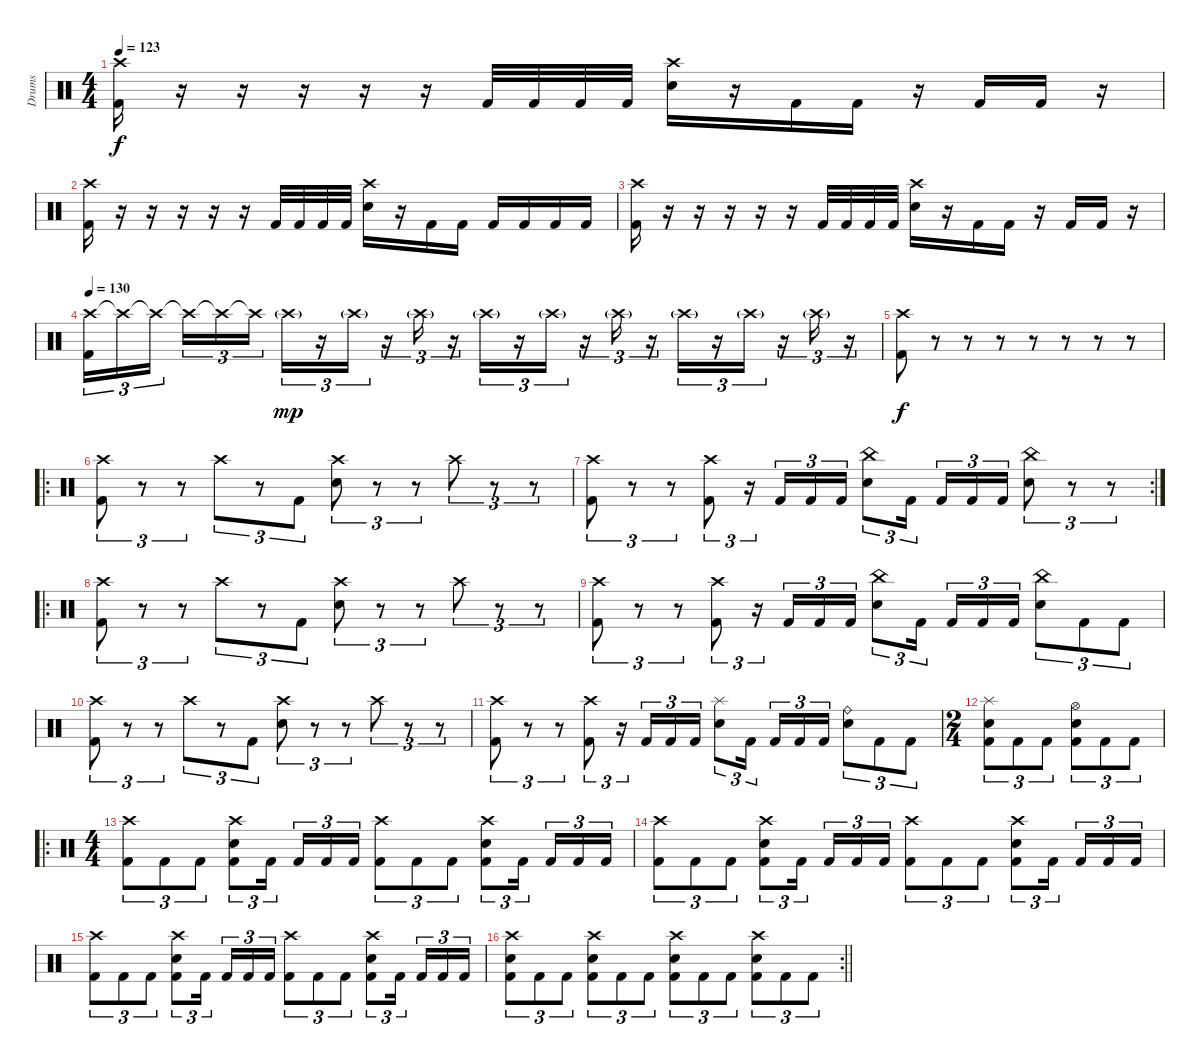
\track ("Drums" "Drums") {instrument percussion}
\staff {score}
\articulation defaults
\ts (4 4)
\tempo 123
\clef neutral
\ks c
("Crash high (hit)" "Kick (hit) 2").16{dy f} r.16 r.16 r.16 r.16 r.16 "Kick (hit) 2".32 "Kick (hit) 2".32 "Kick (hit) 2".32 "Kick (hit) 2".32 ("Crash high (hit)" "Electric Snare (hit)").16 r.16 "Kick (hit) 2".16 "Kick (hit) 2".16 r.16 "Kick (hit) 2".16 "Kick (hit) 2".16 r.16 |
("Crash high (hit)" "Kick (hit) 2").16 r.16 r.16 r.16 r.16 r.16 "Kick (hit) 2".32 "Kick (hit) 2".32 "Kick (hit) 2".32 "Kick (hit) 2".32 ("Crash high (hit)" "Electric Snare (hit)").16 r.16 "Kick (hit) 2".16 "Kick (hit) 2".16 "Kick (hit) 2".16 "Kick (hit) 2".16 "Kick (hit) 2".16 "Kick (hit) 2".16 |
("Crash high (hit)" "Kick (hit) 2").16 r.16 r.16 r.16 r.16 r.16 "Kick (hit) 2".32 "Kick (hit) 2".32 "Kick (hit) 2".32 "Kick (hit) 2".32 ("Crash high (hit)" "Electric Snare (hit)").16 r.16 "Kick (hit) 2".16 "Kick (hit) 2".16 r.16 "Kick (hit) 2".16 "Kick (hit) 2".16 r.16 |
\tempo 130
("Crash high (hit)" "Kick (hit) 2").16{tu (3 2)} "Crash high (hit)"{t}.16{tu (3 2)} "Crash high (hit)"{t}.16{tu (3 2) beam splitsecondary} "Crash high (hit)"{t}.16{tu (3 2)} "Crash high (hit)"{t}.16{tu (3 2)} "Crash high (hit)"{t}.16{tu (3 2)} "Crash high (hit)"{g}.16{tu (3 2) dy mp} r.16{tu (3 2)} "Crash high (hit)"{g}.16{tu (3 2)} r.16{tu (3 2)} "Crash high (hit)"{g}.16{tu (3 2)} r.16{tu (3 2)} "Crash high (hit)"{g}.16{tu (3 2)} r.16{tu (3 2)} "Crash high (hit)"{g}.16{tu (3 2)} r.16{tu (3 2)} "Crash high (hit)"{g}.16{tu (3 2)} r.16{tu (3 2)} "Crash high (hit)"{g}.16{tu (3 2)} r.16{tu (3 2)} "Crash high (hit)"{g}.16{tu (3 2)} r.16{tu (3 2)} "Crash high (hit)"{g}.16{tu (3 2)} r.16{tu (3 2)} |
("Crash high (hit)" "Kick (hit) 2").8{dy f} r.8{volume 0} r.8 r.8 r.8 r.8 r.8 r.8 |
\ro
("Crash high (hit)" "Kick (hit) 2").8{tu (3 2) volume 13 balance 8} r.8{tu (3 2)} r.8{tu (3 2)} "Crash high (hit)".8{tu (3 2)} r.8{tu (3 2)} "Kick (hit) 2".8{tu (3 2)} ("Crash high (hit)" "Electric Snare (hit)").8{tu (3 2)} r.8{tu (3 2)} r.8{tu (3 2)} "Crash high (hit)".8{tu (3 2)} r.8{tu (3 2)} r.8{tu (3 2)} |
\rc 2
("Crash high (hit)" "Kick (hit) 2").8{tu (3 2)} r.8{tu (3 2)} r.8{tu (3 2)} ("Crash high (hit)" "Kick (hit) 2").8{tu (3 2)} r.16{tu (3 2)} "Kick (hit) 2".16{tu (3 2)} "Kick (hit) 2".16{tu (3 2)} "Kick (hit) 2".16{tu (3 2)} ("China (hit)" "Electric Snare (hit)").8{tu (3 2)} "Kick (hit) 2".16{tu (3 2) beam splitsecondary} "Kick (hit) 2".16{tu (3 2)} "Kick (hit) 2".16{tu (3 2)} "Kick (hit) 2".16{tu (3 2)} ("China (hit)" "Electric Snare (hit)").8{tu (3 2)} r.8{tu (3 2)} r.8{tu (3 2)} |
\ro
("Crash high (hit)" "Kick (hit) 2").8{tu (3 2)} r.8{tu (3 2)} r.8{tu (3 2)} "Crash high (hit)".8{tu (3 2)} r.8{tu (3 2)} "Kick (hit) 2".8{tu (3 2)} ("Crash high (hit)" "Electric Snare (hit)").8{tu (3 2)} r.8{tu (3 2)} r.8{tu (3 2)} "Crash high (hit)".8{tu (3 2)} r.8{tu (3 2)} r.8{tu (3 2)} |
("Crash high (hit)" "Kick (hit) 2").8{tu (3 2)} r.8{tu (3 2)} r.8{tu (3 2)} ("Crash high (hit)" "Kick (hit) 2").8{tu (3 2)} r.16{tu (3 2)} "Kick (hit) 2".16{tu (3 2)} "Kick (hit) 2".16{tu (3 2)} "Kick (hit) 2".16{tu (3 2)} ("China (hit)" "Electric Snare (hit)").8{tu (3 2)} "Kick (hit) 2".16{tu (3 2) beam splitsecondary} "Kick (hit) 2".16{tu (3 2)} "Kick (hit) 2".16{tu (3 2)} "Kick (hit) 2".16{tu (3 2)} ("China (hit)" "Electric Snare (hit)").8{tu (3 2)} "Kick (hit) 2".8{tu (3 2)} "Kick (hit) 2".8{tu (3 2)} |
("Crash high (hit)" "Kick (hit) 2").8{tu (3 2)} r.8{tu (3 2)} r.8{tu (3 2)} "Crash high (hit)".8{tu (3 2)} r.8{tu (3 2)} "Kick (hit) 2".8{tu (3 2)} ("Crash high (hit)" "Electric Snare (hit)").8{tu (3 2)} r.8{tu (3 2)} r.8{tu (3 2)} "Crash high (hit)".8{tu (3 2)} r.8{tu (3 2)} r.8{tu (3 2)} |
("Crash high (hit)" "Kick (hit) 2").8{tu (3 2)} r.8{tu (3 2)} r.8{tu (3 2)} ("Crash high (hit)" "Kick (hit) 2").8{tu (3 2)} r.16{tu (3 2)} "Kick (hit) 2".16{tu (3 2)} "Kick (hit) 2".16{tu (3 2)} "Kick (hit) 2".16{tu (3 2)} ("Splash (hit)" "Electric Snare (hit)").8{tu (3 2)} "Kick (hit) 2".16{tu (3 2) beam splitsecondary} "Kick (hit) 2".16{tu (3 2)} "Kick (hit) 2".16{tu (3 2)} "Kick (hit) 2".16{tu (3 2)} ("Ride (bell)" "Electric Snare (hit)").8{tu (3 2)} "Kick (hit) 2".8{tu (3 2)} "Kick (hit) 2".8{tu (3 2)} |
\ts (2 4)
("Splash (hit)" "Electric Snare (hit)" "Kick (hit) 2").8{tu (3 2)} "Kick (hit) 2".8{tu (3 2)} "Kick (hit) 2".8{tu (3 2)} ("Hi-Hat (open)" "Electric Snare (hit)" "Kick (hit) 2").8{tu (3 2)} "Kick (hit) 2".8{tu (3 2)} "Kick (hit) 2".8{tu (3 2)} |
\ro
\ts (4 4)
("Crash high (hit)" "Kick (hit) 2").8{tu (3 2)} "Kick (hit) 2".8{tu (3 2)} "Kick (hit) 2".8{tu (3 2)} ("Crash high (hit)" "Electric Snare (hit)" "Kick (hit) 2").8{tu (3 2)} "Kick (hit) 2".16{tu (3 2) beam splitsecondary} "Kick (hit) 2".16{tu (3 2)} "Kick (hit) 2".16{tu (3 2)} "Kick (hit) 2".16{tu (3 2)} ("Crash high (hit)" "Kick (hit) 2").8{tu (3 2)} "Kick (hit) 2".8{tu (3 2)} "Kick (hit) 2".8{tu (3 2)} ("Crash high (hit)" "Electric Snare (hit)" "Kick (hit) 2").8{tu (3 2)} "Kick (hit) 2".16{tu (3 2) beam splitsecondary} "Kick (hit) 2".16{tu (3 2)} "Kick (hit) 2".16{tu (3 2)} "Kick (hit) 2".16{tu (3 2)} |
("Crash high (hit)" "Kick (hit) 2").8{tu (3 2)} "Kick (hit) 2".8{tu (3 2)} "Kick (hit) 2".8{tu (3 2)} ("Crash high (hit)" "Electric Snare (hit)" "Kick (hit) 2").8{tu (3 2)} "Kick (hit) 2".16{tu (3 2) beam splitsecondary} "Kick (hit) 2".16{tu (3 2)} "Kick (hit) 2".16{tu (3 2)} "Kick (hit) 2".16{tu (3 2)} ("Crash high (hit)" "Kick (hit) 2").8{tu (3 2)} "Kick (hit) 2".8{tu (3 2)} "Kick (hit) 2".8{tu (3 2)} ("Crash high (hit)" "Electric Snare (hit)" "Kick (hit) 2").8{tu (3 2)} "Kick (hit) 2".16{tu (3 2) beam splitsecondary} "Kick (hit) 2".16{tu (3 2)} "Kick (hit) 2".16{tu (3 2)} "Kick (hit) 2".16{tu (3 2)} |
("Crash high (hit)" "Kick (hit) 2").8{tu (3 2)} "Kick (hit) 2".8{tu (3 2)} "Kick (hit) 2".8{tu (3 2)} ("Crash high (hit)" "Electric Snare (hit)" "Kick (hit) 2").8{tu (3 2)} "Kick (hit) 2".16{tu (3 2) beam splitsecondary} "Kick (hit) 2".16{tu (3 2)} "Kick (hit) 2".16{tu (3 2)} "Kick (hit) 2".16{tu (3 2)} ("Crash high (hit)" "Kick (hit) 2").8{tu (3 2)} "Kick (hit) 2".8{tu (3 2)} "Kick (hit) 2".8{tu (3 2)} ("Crash high (hit)" "Electric Snare (hit)" "Kick (hit) 2").8{tu (3 2)} "Kick (hit) 2".16{tu (3 2) beam splitsecondary} "Kick (hit) 2".16{tu (3 2)} "Kick (hit) 2".16{tu (3 2)} "Kick (hit) 2".16{tu (3 2)} |
\rc 2
\barLineRight lightlight
("Crash high (hit)" "Electric Snare (hit)" "Kick (hit) 2").8{tu (3 2)} "Kick (hit) 2".8{tu (3 2)} "Kick (hit) 2".8{tu (3 2)} ("Crash high (hit)" "Electric Snare (hit)" "Kick (hit) 2").8{tu (3 2)} "Kick (hit) 2".8{tu (3 2)} "Kick (hit) 2".8{tu (3 2)} ("Crash high (hit)" "Electric Snare (hit)" "Kick (hit) 2").8{tu (3 2)} "Kick (hit) 2".8{tu (3 2)} "Kick (hit) 2".8{tu (3 2)} ("Crash high (hit)" "Electric Snare (hit)" "Kick (hit) 2").8{tu (3 2)} "Kick (hit) 2".8{tu (3 2)} "Kick (hit) 2".8{tu (3 2)}
